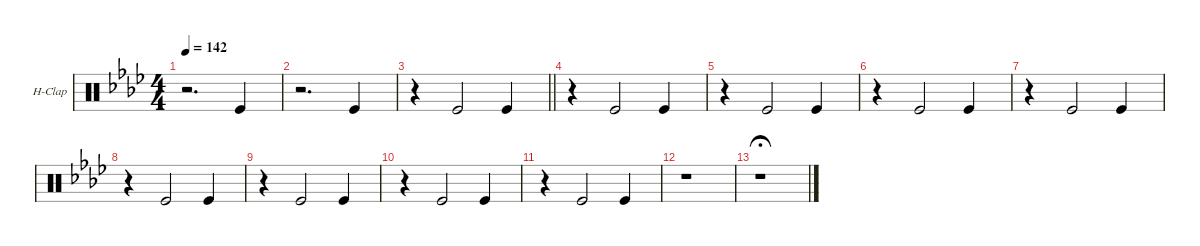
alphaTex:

\defaultSystemsLayout 4
\hideDynamics
\bracketExtendMode groupsimilarinstruments
\firstSystemTrackNameOrientation horizontal
\otherSystemsTrackNameOrientation horizontal
\track ("Hand Clap" "H-Clap") {multiBarRest instrument percussion}
\staff {score}
\articulation defaults
\ts (4 4)
\tempo 142
\clef neutral
\ks ab
r.2{d dy fff} "Kick (hit)".4 |
r.2{d} "Kick (hit)".4 |
\barLineRight lightlight
r.4 "Kick (hit)".2 "Kick (hit)".4 |
r.4 "Kick (hit)".2 "Kick (hit)".4 |
r.4 "Kick (hit)".2 "Kick (hit)".4 |
r.4 "Kick (hit)".2 "Kick (hit)".4 |
r.4 "Kick (hit)".2 "Kick (hit)".4 |
r.4 "Kick (hit)".2 "Kick (hit)".4 |
r.4 "Kick (hit)".2 "Kick (hit)".4 |
r.4 "Kick (hit)".2 "Kick (hit)".4 |
r.4 "Kick (hit)".2 "Kick (hit)".4 |
r.1 |
r.1{fermata (medium 0.5)}
